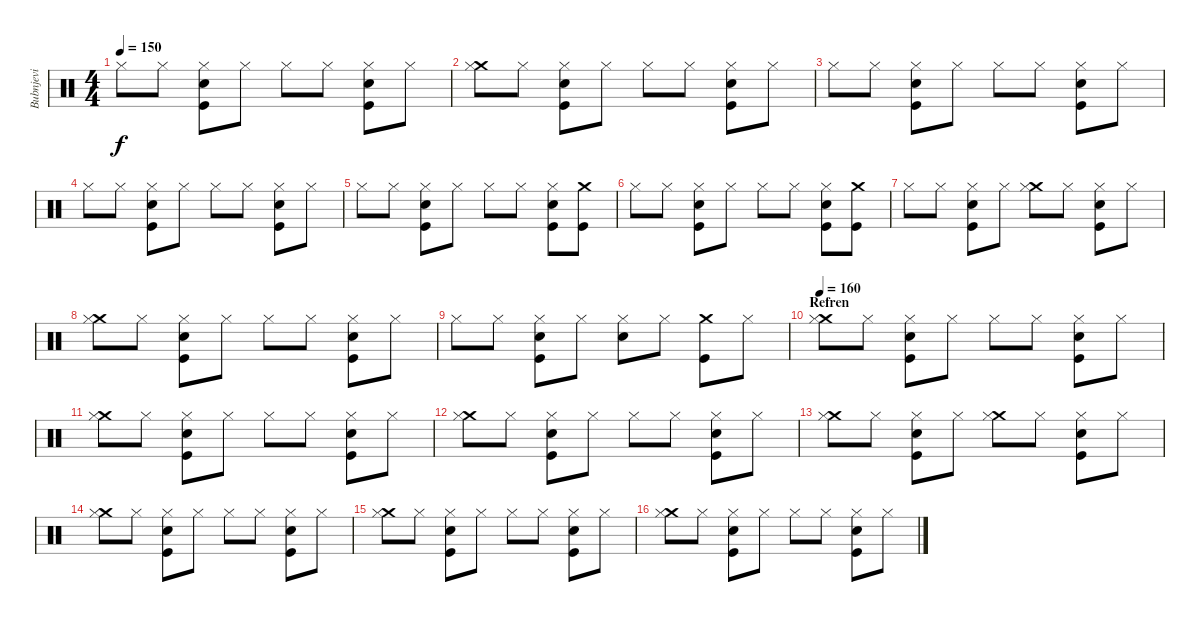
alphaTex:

\track ("Bubnjevi" "Bubnjevi") {instrument percussion}
\staff {score}
\articulation defaults
\ts (4 4)
\tempo 150
\clef neutral
\ks c "Hi-Hat (closed)".8{dy f} "Hi-Hat (closed)".8
("Snare (hit) 2" "Hi-Hat (closed)" "Kick (hit)").8 "Hi-Hat (closed)".8 "Hi-Hat (closed)".8 "Hi-Hat (closed)".8 ("Snare (hit) 2" "Hi-Hat (closed)" "Kick (hit)").8 "Hi-Hat (closed)".8 |
("Crash medium (hit)" "Hi-Hat (closed)").8 "Hi-Hat (closed)".8 ("Snare (hit) 2" "Hi-Hat (closed)" "Kick (hit)").8 "Hi-Hat (closed)".8 "Hi-Hat (closed)".8 "Hi-Hat (closed)".8 ("Snare (hit) 2" "Hi-Hat (closed)" "Kick (hit)").8 "Hi-Hat (closed)".8 |
"Hi-Hat (closed)".8 "Hi-Hat (closed)".8 ("Snare (hit) 2" "Hi-Hat (closed)" "Kick (hit)").8 "Hi-Hat (closed)".8 "Hi-Hat (closed)".8 "Hi-Hat (closed)".8 ("Snare (hit) 2" "Hi-Hat (closed)" "Kick (hit)").8 "Hi-Hat (closed)".8 |
"Hi-Hat (closed)".8 "Hi-Hat (closed)".8 ("Snare (hit) 2" "Hi-Hat (closed)" "Kick (hit)").8 "Hi-Hat (closed)".8 "Hi-Hat (closed)".8 "Hi-Hat (closed)".8 ("Snare (hit) 2" "Hi-Hat (closed)" "Kick (hit)").8 "Hi-Hat (closed)".8 |
"Hi-Hat (closed)".8 "Hi-Hat (closed)".8 ("Snare (hit) 2" "Hi-Hat (closed)" "Kick (hit)").8 "Hi-Hat (closed)".8 "Hi-Hat (closed)".8 "Hi-Hat (closed)".8 ("Snare (hit) 2" "Hi-Hat (closed)" "Kick (hit)").8 ("Crash medium (hit)" "Kick (hit)").8 |
"Hi-Hat (closed)".8 "Hi-Hat (closed)".8 ("Snare (hit) 2" "Hi-Hat (closed)" "Kick (hit)").8 "Hi-Hat (closed)".8 "Hi-Hat (closed)".8 "Hi-Hat (closed)".8 ("Snare (hit) 2" "Hi-Hat (closed)" "Kick (hit)").8 ("Crash medium (hit)" "Kick (hit)").8 |
"Hi-Hat (closed)".8 "Hi-Hat (closed)".8 ("Snare (hit) 2" "Hi-Hat (closed)" "Kick (hit)").8 "Hi-Hat (closed)".8 ("Crash medium (hit)" "Hi-Hat (closed)").8 "Hi-Hat (closed)".8 ("Snare (hit) 2" "Hi-Hat (closed)" "Kick (hit)").8 "Hi-Hat (closed)".8 |
("Crash medium (hit)" "Hi-Hat (closed)").8 "Hi-Hat (closed)".8 ("Snare (hit) 2" "Hi-Hat (closed)" "Kick (hit)").8 "Hi-Hat (closed)".8 "Hi-Hat (closed)".8 "Hi-Hat (closed)".8 ("Snare (hit) 2" "Hi-Hat (closed)" "Kick (hit)").8 "Hi-Hat (closed)".8 |
"Hi-Hat (closed)".8 "Hi-Hat (closed)".8 ("Snare (hit) 2" "Hi-Hat (closed)" "Kick (hit)").8 "Hi-Hat (closed)".8 ("Snare (hit) 2" "Hi-Hat (closed)").8 "Hi-Hat (closed)".8 ("Crash medium (hit)" "Kick (hit)").8 "Hi-Hat (closed)".8 |
\section ("" "Refren")
\tempo 160
("Crash medium (hit)" "Hi-Hat (closed)").8 "Hi-Hat (closed)".8 ("Snare (hit) 2" "Hi-Hat (closed)" "Kick (hit)").8 "Hi-Hat (closed)".8 "Hi-Hat (closed)".8 "Hi-Hat (closed)".8 ("Snare (hit) 2" "Hi-Hat (closed)" "Kick (hit)").8 "Hi-Hat (closed)".8 |
("Crash medium (hit)" "Hi-Hat (closed)").8 "Hi-Hat (closed)".8 ("Snare (hit) 2" "Hi-Hat (closed)" "Kick (hit)").8 "Hi-Hat (closed)".8 "Hi-Hat (closed)".8 "Hi-Hat (closed)".8 ("Snare (hit) 2" "Hi-Hat (closed)" "Kick (hit)").8 "Hi-Hat (closed)".8 |
("Crash medium (hit)" "Hi-Hat (closed)").8 "Hi-Hat (closed)".8 ("Snare (hit) 2" "Hi-Hat (closed)" "Kick (hit)").8 "Hi-Hat (closed)".8 "Hi-Hat (closed)".8 "Hi-Hat (closed)".8 ("Snare (hit) 2" "Hi-Hat (closed)" "Kick (hit)").8 "Hi-Hat (closed)".8 |
("Crash medium (hit)" "Hi-Hat (closed)").8 "Hi-Hat (closed)".8 ("Snare (hit) 2" "Hi-Hat (closed)" "Kick (hit)").8 "Hi-Hat (closed)".8 ("Crash medium (hit)" "Hi-Hat (closed)").8 "Hi-Hat (closed)".8 ("Snare (hit) 2" "Hi-Hat (closed)" "Kick (hit)").8 "Hi-Hat (closed)".8 |
("Crash medium (hit)" "Hi-Hat (closed)").8 "Hi-Hat (closed)".8 ("Snare (hit) 2" "Hi-Hat (closed)" "Kick (hit)").8 "Hi-Hat (closed)".8 "Hi-Hat (closed)".8 "Hi-Hat (closed)".8 ("Snare (hit) 2" "Hi-Hat (closed)" "Kick (hit)").8 "Hi-Hat (closed)".8 |
("Crash medium (hit)" "Hi-Hat (closed)").8 "Hi-Hat (closed)".8 ("Snare (hit) 2" "Hi-Hat (closed)" "Kick (hit)").8 "Hi-Hat (closed)".8 "Hi-Hat (closed)".8 "Hi-Hat (closed)".8 ("Snare (hit) 2" "Hi-Hat (closed)" "Kick (hit)").8 "Hi-Hat (closed)".8 |
("Crash medium (hit)" "Hi-Hat (closed)").8 "Hi-Hat (closed)".8 ("Snare (hit) 2" "Hi-Hat (closed)" "Kick (hit)").8 "Hi-Hat (closed)".8 "Hi-Hat (closed)".8 "Hi-Hat (closed)".8 ("Snare (hit) 2" "Hi-Hat (closed)" "Kick (hit)").8 "Hi-Hat (closed)".8
